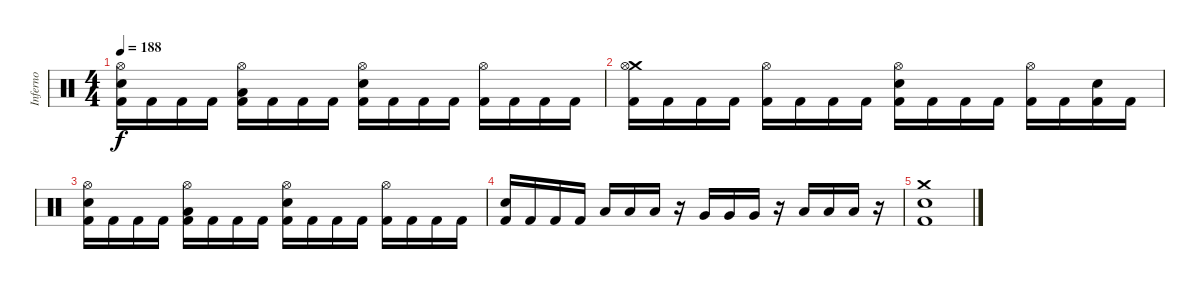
\track ("Inferno" "Inferno") {instrument percussion}
\staff {score}
\articulation defaults
\ts (4 4)
\tempo 188
\clef neutral
\ks c
("Hi-Hat (open)" "Snare (hit) 2" "Kick (hit) 2").16{dy f} "Kick (hit) 2".16 "Kick (hit) 2".16 "Kick (hit) 2".16 ("Hi-Hat (open)" "Low Floor Tom (hit)" "Kick (hit) 2").16 "Kick (hit) 2".16 "Kick (hit) 2".16 "Kick (hit) 2".16 ("Hi-Hat (open)" "Snare (hit) 2" "Kick (hit) 2").16 "Kick (hit) 2".16 "Kick (hit) 2".16 "Kick (hit) 2".16 ("Hi-Hat (open)" "Kick (hit) 2").16 "Kick (hit) 2".16 "Kick (hit) 2".16 "Kick (hit) 2".16 |
("Crash medium (hit)" "Hi-Hat (open)" "Kick (hit) 2").16 "Kick (hit) 2".16 "Kick (hit) 2".16 "Kick (hit) 2".16 ("Hi-Hat (open)" "Kick (hit) 2").16 "Kick (hit) 2".16 "Kick (hit) 2".16 "Kick (hit) 2".16 ("Hi-Hat (open)" "Snare (hit) 2" "Kick (hit) 2").16 "Kick (hit) 2".16 "Kick (hit) 2".16 "Kick (hit) 2".16 ("Hi-Hat (open)" "Kick (hit) 2").16 "Kick (hit) 2".16 ("Snare (hit) 2" "Kick (hit) 2").16 "Kick (hit) 2".16 |
("Hi-Hat (open)" "Snare (hit) 2" "Kick (hit) 2").16 "Kick (hit) 2".16 "Kick (hit) 2".16 "Kick (hit) 2".16 ("Hi-Hat (open)" "Low Floor Tom (hit)" "Kick (hit) 2").16 "Kick (hit) 2".16 "Kick (hit) 2".16 "Kick (hit) 2".16 ("Hi-Hat (open)" "Snare (hit) 2" "Kick (hit) 2").16 "Kick (hit) 2".16 "Kick (hit) 2".16 "Kick (hit) 2".16 ("Hi-Hat (open)" "Kick (hit) 2").16 "Kick (hit) 2".16 "Kick (hit) 2".16 "Kick (hit) 2".16 |
("Snare (hit) 2" "Kick (hit) 2").16 "Kick (hit) 2".16 "Kick (hit) 2".16 "Kick (hit) 2".16 "Low Tom (hit)".16 "Low Tom (hit)".16 "Low Tom (hit)".16 r.16 "Very Low Tom (hit)".16 "Very Low Tom (hit)".16 "Very Low Tom (hit)".16 r.16 "Low Floor Tom (hit)".16 "Low Floor Tom (hit)".16 "Low Floor Tom (hit)".16 r.16 |
("Crash medium (hit)" "Snare (hit) 2" "Kick (hit) 2").1
